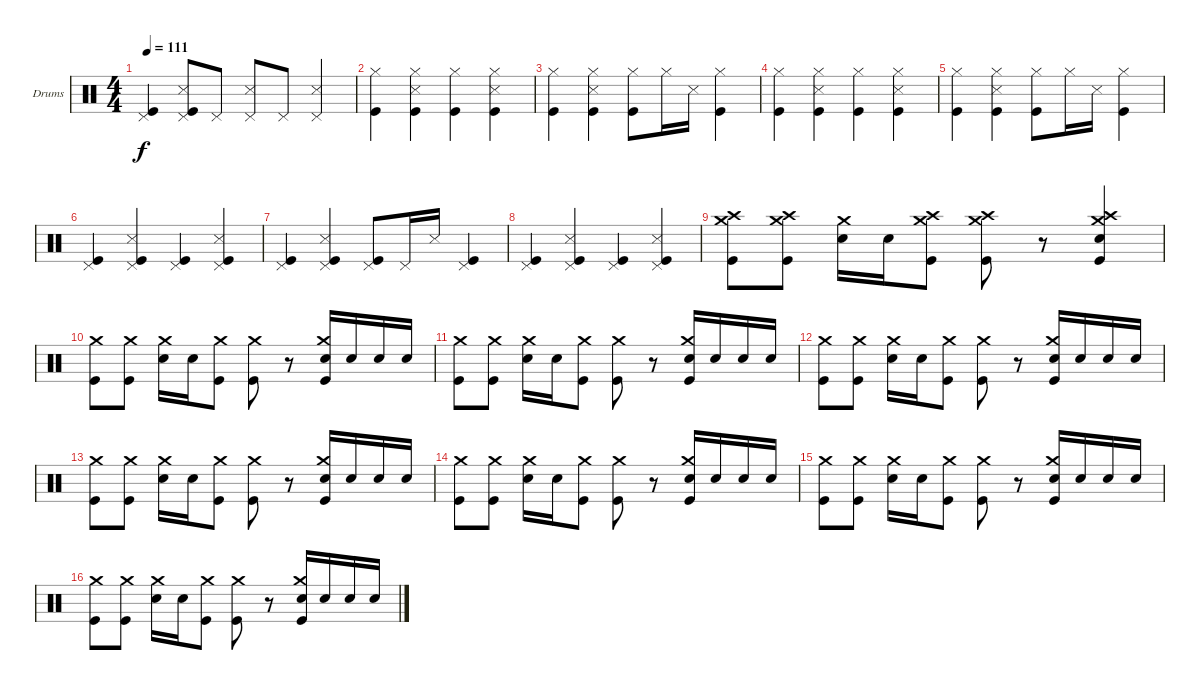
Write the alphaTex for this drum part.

\bracketExtendMode groupsimilarinstruments
\firstSystemTrackNameOrientation horizontal
\otherSystemsTrackNameOrientation horizontal
\track ("Drumkit" "Drums") {instrument percussion}
\staff {score}
\articulation defaults
\ts (4 4)
\tempo 111
\clef neutral
\ks c
("Pedal Hi-Hat (hit)" "Kick (hit)").4{dy f} ("Pedal Hi-Hat (hit)" "Snare (side stick) 3" "Kick (hit)").8 "Pedal Hi-Hat (hit)".8 ("Pedal Hi-Hat (hit)" "Snare (side stick) 3").8 "Pedal Hi-Hat (hit)".8 ("Pedal Hi-Hat (hit)" "Snare (side stick) 3").4 |
("Hi-Hat (closed)" "Kick (hit)").4 ("Hi-Hat (closed)" "Snare (side stick) 3" "Kick (hit)").4 ("Hi-Hat (closed)" "Kick (hit)").4 ("Hi-Hat (closed)" "Snare (side stick) 3" "Kick (hit)").4 |
("Hi-Hat (closed)" "Kick (hit)").4 ("Hi-Hat (closed)" "Snare (side stick) 3" "Kick (hit)").4 ("Hi-Hat (closed)" "Kick (hit)").8 "Hi-Hat (closed)".16 "Snare (side stick) 3".16 ("Hi-Hat (closed)" "Kick (hit)").4 |
("Hi-Hat (closed)" "Kick (hit)").4 ("Hi-Hat (closed)" "Snare (side stick) 3" "Kick (hit)").4 ("Hi-Hat (closed)" "Kick (hit)").4 ("Hi-Hat (closed)" "Snare (side stick) 3" "Kick (hit)").4 |
("Hi-Hat (closed)" "Kick (hit)").4 ("Hi-Hat (closed)" "Snare (side stick) 3" "Kick (hit)").4 ("Hi-Hat (closed)" "Kick (hit)").8 "Hi-Hat (closed)".16 "Snare (side stick) 3".16 ("Hi-Hat (closed)" "Kick (hit)").4 |
("Pedal Hi-Hat (hit)" "Kick (hit)").4 ("Pedal Hi-Hat (hit)" "Snare (side stick) 3" "Kick (hit)").4 ("Pedal Hi-Hat (hit)" "Kick (hit)").4 ("Pedal Hi-Hat (hit)" "Snare (side stick) 3" "Kick (hit)").4 |
("Pedal Hi-Hat (hit)" "Kick (hit)").4 ("Pedal Hi-Hat (hit)" "Snare (side stick) 3" "Kick (hit)").4 ("Pedal Hi-Hat (hit)" "Kick (hit)").8 "Pedal Hi-Hat (hit)".16 "Snare (side stick) 3".16 ("Pedal Hi-Hat (hit)" "Kick (hit)").4 |
("Pedal Hi-Hat (hit)" "Kick (hit)").4 ("Pedal Hi-Hat (hit)" "Snare (side stick) 3" "Kick (hit)").4 ("Pedal Hi-Hat (hit)" "Kick (hit)").4 ("Pedal Hi-Hat (hit)" "Snare (side stick) 3" "Kick (hit)").4 |
("Crash medium (hit)" "Crash high (hit)" "Kick (hit)").8 ("Crash medium (hit)" "Crash high (hit)" "Kick (hit)").8 ("Crash medium (hit)" "Snare (hit) 2").16 "Snare (hit) 2".16 ("Crash medium (hit)" "Crash high (hit)" "Kick (hit)").8 ("Crash medium (hit)" "Crash high (hit)" "Kick (hit)").8 r.8 ("Crash medium (hit)" "Crash high (hit)" "Snare (hit) 2" "Kick (hit)").4 |
("Crash medium (hit)" "Kick (hit)").8 ("Crash medium (hit)" "Kick (hit)").8 ("Crash medium (hit)" "Snare (hit) 2").16 "Snare (hit) 2".16 ("Crash medium (hit)" "Kick (hit)").8 ("Crash medium (hit)" "Kick (hit)").8 r.8 ("Crash medium (hit)" "Snare (hit) 2" "Kick (hit)").16 "Snare (hit) 2".16 "Snare (hit) 2".16 "Snare (hit) 2".16 |
("Crash medium (hit)" "Kick (hit)").8 ("Crash medium (hit)" "Kick (hit)").8 ("Crash medium (hit)" "Snare (hit) 2").16 "Snare (hit) 2".16 ("Crash medium (hit)" "Kick (hit)").8 ("Crash medium (hit)" "Kick (hit)").8 r.8 ("Crash medium (hit)" "Snare (hit) 2" "Kick (hit)").16 "Snare (hit) 2".16 "Snare (hit) 2".16 "Snare (hit) 2".16 |
("Crash medium (hit)" "Kick (hit)").8 ("Crash medium (hit)" "Kick (hit)").8 ("Crash medium (hit)" "Snare (hit) 2").16 "Snare (hit) 2".16 ("Crash medium (hit)" "Kick (hit)").8 ("Crash medium (hit)" "Kick (hit)").8 r.8 ("Crash medium (hit)" "Snare (hit) 2" "Kick (hit)").16 "Snare (hit) 2".16 "Snare (hit) 2".16 "Snare (hit) 2".16 |
("Crash medium (hit)" "Kick (hit)").8 ("Crash medium (hit)" "Kick (hit)").8 ("Crash medium (hit)" "Snare (hit) 2").16 "Snare (hit) 2".16 ("Crash medium (hit)" "Kick (hit)").8 ("Crash medium (hit)" "Kick (hit)").8 r.8 ("Crash medium (hit)" "Snare (hit) 2" "Kick (hit)").16 "Snare (hit) 2".16 "Snare (hit) 2".16 "Snare (hit) 2".16 |
("Crash medium (hit)" "Kick (hit)").8 ("Crash medium (hit)" "Kick (hit)").8 ("Crash medium (hit)" "Snare (hit) 2").16 "Snare (hit) 2".16 ("Crash medium (hit)" "Kick (hit)").8 ("Crash medium (hit)" "Kick (hit)").8 r.8 ("Crash medium (hit)" "Snare (hit) 2" "Kick (hit)").16 "Snare (hit) 2".16 "Snare (hit) 2".16 "Snare (hit) 2".16 |
("Crash medium (hit)" "Kick (hit)").8 ("Crash medium (hit)" "Kick (hit)").8 ("Crash medium (hit)" "Snare (hit) 2").16 "Snare (hit) 2".16 ("Crash medium (hit)" "Kick (hit)").8 ("Crash medium (hit)" "Kick (hit)").8 r.8 ("Crash medium (hit)" "Snare (hit) 2" "Kick (hit)").16 "Snare (hit) 2".16 "Snare (hit) 2".16 "Snare (hit) 2".16 |
("Crash medium (hit)" "Kick (hit)").8 ("Crash medium (hit)" "Kick (hit)").8 ("Crash medium (hit)" "Snare (hit) 2").16 "Snare (hit) 2".16 ("Crash medium (hit)" "Kick (hit)").8 ("Crash medium (hit)" "Kick (hit)").8 r.8 ("Crash medium (hit)" "Snare (hit) 2" "Kick (hit)").16 "Snare (hit) 2".16 "Snare (hit) 2".16 "Snare (hit) 2".16
